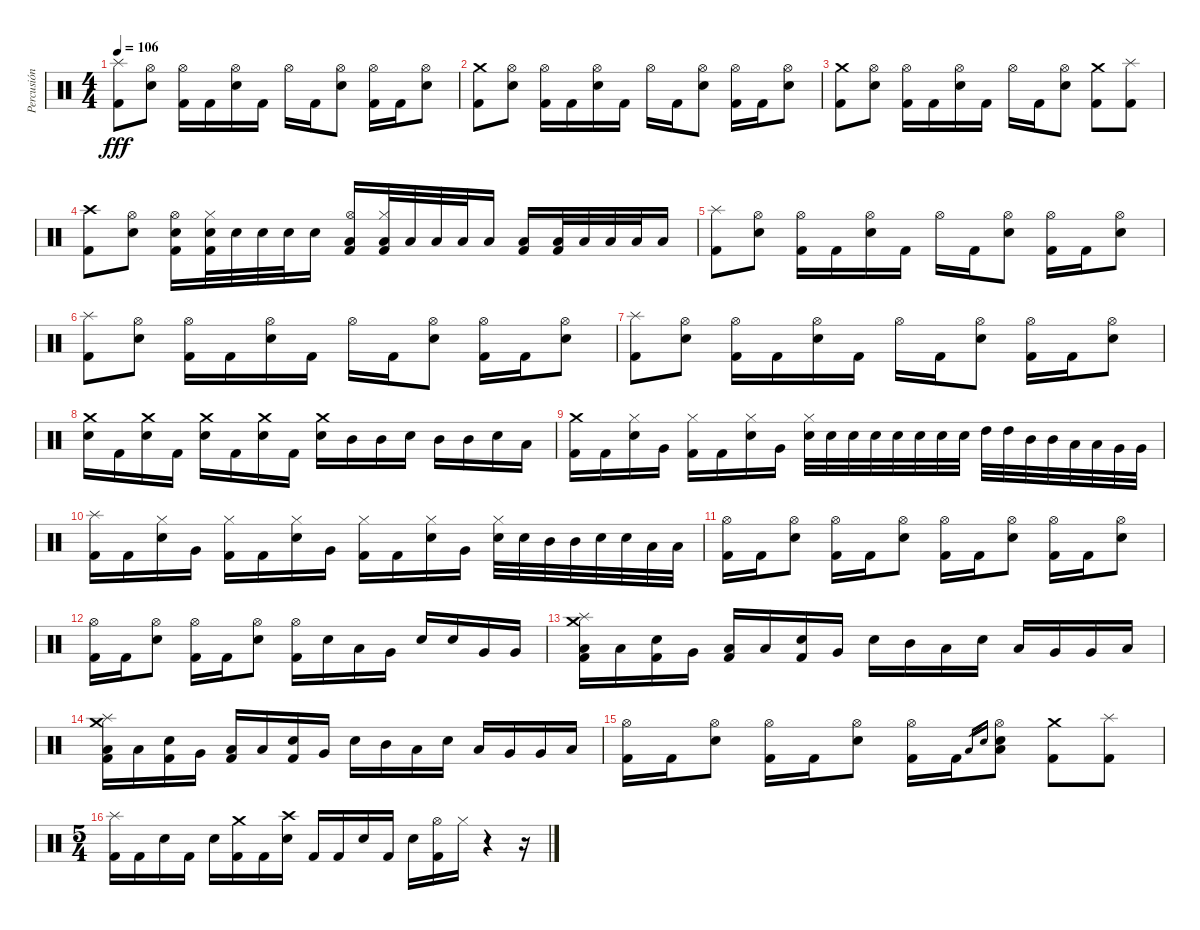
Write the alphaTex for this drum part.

\track ("Percusión" "Percusión") {instrument percussion}
\staff {score}
\articulation defaults
\ts (4 4)
\tempo 106
\clef neutral
\ks c
("Splash (hit)" "Kick (hit) 2").8{dy fff} ("Hi-Hat (open)" "Snare (hit) 2").8 ("Hi-Hat (open)" "Kick (hit) 2").16 "Kick (hit) 2".16 ("Hi-Hat (open)" "Snare (hit) 2").16 "Kick (hit) 2".16 "Hi-Hat (open)".16 "Kick (hit) 2".16 ("Hi-Hat (open)" "Snare (hit) 2").8 ("Hi-Hat (open)" "Kick (hit) 2").16 "Kick (hit) 2".16 ("Hi-Hat (open)" "Snare (hit) 2").8 |
("Crash medium (hit)" "Kick (hit) 2").8 ("Hi-Hat (open)" "Snare (hit) 2").8 ("Hi-Hat (open)" "Kick (hit) 2").16 "Kick (hit) 2".16 ("Hi-Hat (open)" "Snare (hit) 2").16 "Kick (hit) 2".16 "Hi-Hat (open)".16 "Kick (hit) 2".16 ("Hi-Hat (open)" "Snare (hit) 2").8 ("Hi-Hat (open)" "Kick (hit) 2").16 "Kick (hit) 2".16 ("Hi-Hat (open)" "Snare (hit) 2").8 |
("Crash medium (hit)" "Kick (hit) 2").8 ("Hi-Hat (open)" "Snare (hit) 2").8 ("Hi-Hat (open)" "Kick (hit) 2").16 "Kick (hit) 2".16 ("Hi-Hat (open)" "Snare (hit) 2").16 "Kick (hit) 2".16 "Hi-Hat (open)".16 "Kick (hit) 2".16 ("Hi-Hat (open)" "Snare (hit) 2").8 ("Crash medium (hit)" "Kick (hit) 2").8 ("Splash (hit)" "Kick (hit) 2").8 |
("Crash high (hit)" "Kick (hit) 2").8 ("Hi-Hat (open)" "Snare (hit) 2").8 ("Hi-Hat (open)" "Kick (hit) 2" "Snare (hit) 2").16 ("Hi-Hat (closed)" "Kick (hit) 2" "Snare (hit) 2").32 "Snare (hit) 2".32 "Snare (hit) 2".32 "Snare (hit) 2".32 "Snare (hit) 2".16 ("Hi-Hat (open)" "Kick (hit) 2" "Low Tom (hit)").16 ("Hi-Hat (closed)" "Kick (hit) 2" "Low Tom (hit)").32 "Low Tom (hit)".32 "Low Tom (hit)".32 "Low Tom (hit)".32 "Low Tom (hit)".16 ("Kick (hit) 2" "Low Floor Tom (hit)").16 ("Kick (hit) 2" "Low Floor Tom (hit)").32 "Low Floor Tom (hit)".32 "Low Floor Tom (hit)".32 "Low Floor Tom (hit)".32 "Low Floor Tom (hit)".16 |
("Splash (hit)" "Kick (hit) 2").8 ("Hi-Hat (open)" "Snare (hit) 2").8 ("Hi-Hat (open)" "Kick (hit) 2").16 "Kick (hit) 2".16 ("Hi-Hat (open)" "Snare (hit) 2").16 "Kick (hit) 2".16 "Hi-Hat (open)".16 "Kick (hit) 2".16 ("Hi-Hat (open)" "Snare (hit) 2").8 ("Hi-Hat (open)" "Kick (hit) 2").16 "Kick (hit) 2".16 ("Hi-Hat (open)" "Snare (hit) 2").8 |
("Splash (hit)" "Kick (hit) 2").8 ("Hi-Hat (open)" "Snare (hit) 2").8 ("Hi-Hat (open)" "Kick (hit) 2").16 "Kick (hit) 2".16 ("Hi-Hat (open)" "Snare (hit) 2").16 "Kick (hit) 2".16 "Hi-Hat (open)".16 "Kick (hit) 2".16 ("Hi-Hat (open)" "Snare (hit) 2").8 ("Hi-Hat (open)" "Kick (hit) 2").16 "Kick (hit) 2".16 ("Hi-Hat (open)" "Snare (hit) 2").8 |
("Splash (hit)" "Kick (hit) 2").8 ("Hi-Hat (open)" "Snare (hit) 2").8 ("Hi-Hat (open)" "Kick (hit) 2").16 "Kick (hit) 2".16 ("Hi-Hat (open)" "Snare (hit) 2").16 "Kick (hit) 2".16 "Hi-Hat (open)".16 "Kick (hit) 2".16 ("Hi-Hat (open)" "Snare (hit) 2").8 ("Hi-Hat (open)" "Kick (hit) 2").16 "Kick (hit) 2".16 ("Hi-Hat (open)" "Snare (hit) 2").8 |
("Crash medium (hit)" "Snare (hit) 2").16 "Kick (hit) 2".16 ("Crash medium (hit)" "Snare (hit) 2").16 "Kick (hit) 2".16 ("Crash medium (hit)" "Snare (hit) 2").16 "Kick (hit) 2".16 ("Crash medium (hit)" "Snare (hit) 2").16 "Kick (hit) 2".16 ("Crash medium (hit)" "Snare (hit) 2").16 "Mid Tom (hit)".16 "Mid Tom (hit)".16 "Snare (hit) 2".16 "Mid Tom (hit)".16 "Mid Tom (hit)".16 "Snare (hit) 2".16 "Low Tom (hit)".16 |
("Crash medium (hit)" "Kick (hit) 2").16 "Kick (hit) 2".16 ("Hi-Hat (closed)" "Snare (hit) 2").16 "Very Low Tom (hit)".16 ("Hi-Hat (closed)" "Kick (hit) 2").16 "Kick (hit) 2".16 ("Hi-Hat (closed)" "Snare (hit) 2").16 "Very Low Tom (hit)".16 ("Hi-Hat (closed)" "Snare (hit) 2").32 "Snare (hit) 2".32 "Snare (hit) 2".32 "Snare (hit) 2".32 "Snare (hit) 2".32 "Snare (hit) 2".32 "Snare (hit) 2".32 "Snare (hit) 2".32 "High Tom (hit)".32 "High Tom (hit)".32 "Mid Tom (hit)".32 "Mid Tom (hit)".32 "Low Tom (hit)".32 "Low Tom (hit)".32 "Very Low Tom (hit)".32 "Very Low Tom (hit)".32 |
("Splash (hit)" "Kick (hit) 2").16 "Kick (hit) 2".16 ("Hi-Hat (closed)" "Snare (hit) 2").16 "Very Low Tom (hit)".16 ("Hi-Hat (closed)" "Kick (hit) 2").16 "Kick (hit) 2".16 ("Hi-Hat (closed)" "Snare (hit) 2").16 "Very Low Tom (hit)".16 ("Hi-Hat (closed)" "Kick (hit) 2").16 "Kick (hit) 2".16 ("Hi-Hat (closed)" "Snare (hit) 2").16 "Very Low Tom (hit)".16 ("Hi-Hat (closed)" "Snare (hit) 2").32 "Snare (hit) 2".32 "Mid Tom (hit)".32 "Mid Tom (hit)".32 "Snare (hit) 2".32 "Snare (hit) 2".32 "Low Tom (hit)".32 "Low Tom (hit)".32 |
("Hi-Hat (open)" "Kick (hit) 2").16 "Kick (hit) 2".16 ("Hi-Hat (open)" "Snare (hit) 2").8 ("Hi-Hat (open)" "Kick (hit) 2").16 "Kick (hit) 2".16 ("Hi-Hat (open)" "Snare (hit) 2").8 ("Hi-Hat (open)" "Kick (hit) 2").16 "Kick (hit) 2".16 ("Hi-Hat (open)" "Snare (hit) 2").8 ("Hi-Hat (open)" "Kick (hit) 2").16 "Kick (hit) 2".16 ("Hi-Hat (open)" "Snare (hit) 2").8 |
("Hi-Hat (open)" "Kick (hit) 2").16 "Kick (hit) 2".16 ("Hi-Hat (open)" "Snare (hit) 2").8 ("Hi-Hat (open)" "Kick (hit) 2").16 "Kick (hit) 2".16 ("Hi-Hat (open)" "Snare (hit) 2").8 ("Hi-Hat (open)" "Kick (hit) 2").16 "Snare (hit) 2".16 "Low Tom (hit)".16 "Very Low Tom (hit)".16 "Snare (hit) 2".16 "Snare (hit) 2".16 "Very Low Tom (hit)".16 "Very Low Tom (hit)".16 |
("Crash medium (hit)" "Splash (hit)" "Low Tom (hit)" "Kick (hit) 2").16 "Low Tom (hit)".16 ("Snare (hit) 2" "Kick (hit) 2").16 "Very Low Tom (hit)".16 ("Low Tom (hit)" "Kick (hit) 2").16 "Low Tom (hit)".16 ("Snare (hit) 2" "Kick (hit) 2").16 "Very Low Tom (hit)".16 "Snare (hit) 2".16 "Mid Tom (hit)".16 "Low Tom (hit)".16 "Snare (hit) 2".16 "Low Tom (hit)".16 "Very Low Tom (hit)".16 "Very Low Tom (hit)".16 "Low Floor Tom (hit)".16 |
("Crash medium (hit)" "Splash (hit)" "Low Tom (hit)" "Kick (hit) 2").16 "Low Tom (hit)".16 ("Snare (hit) 2" "Kick (hit) 2").16 "Very Low Tom (hit)".16 ("Low Tom (hit)" "Kick (hit) 2").16 "Low Tom (hit)".16 ("Snare (hit) 2" "Kick (hit) 2").16 "Very Low Tom (hit)".16 "Snare (hit) 2".16 "Mid Tom (hit)".16 "Low Tom (hit)".16 "Snare (hit) 2".16 "Low Tom (hit)".16 "Very Low Tom (hit)".16 "Very Low Tom (hit)".16 "Low Floor Tom (hit)".16 |
("Hi-Hat (open)" "Kick (hit) 2").16 "Kick (hit) 2".16 ("Hi-Hat (open)" "Snare (hit) 2").8 ("Hi-Hat (open)" "Kick (hit) 2").16 "Kick (hit) 2".16 ("Hi-Hat (open)" "Snare (hit) 2").8 ("Hi-Hat (open)" "Kick (hit) 2").16 "Kick (hit) 2".16 "Low Tom (hit)".16{gr} "Snare (hit) 2".16{gr} ("Hi-Hat (open)" "Low Tom (hit)" "Snare (hit) 2").8 ("Crash medium (hit)" "Kick (hit) 2").8 ("Splash (hit)" "Kick (hit) 2").8 |
\ts (5 4)
("Splash (hit)" "Kick (hit) 2").16 "Kick (hit) 2".16 "Snare (hit) 2".16 "Kick (hit) 2".16 "Snare (hit) 2".16 ("Crash medium (hit)" "Kick (hit) 2").16 "Kick (hit) 2".16 ("Crash high (hit)" "Snare (hit) 2").16 "Kick (hit) 2".16 "Kick (hit) 2".16 "Snare (hit) 2".16 "Kick (hit) 2".16 "Snare (hit) 2".16 ("Hi-Hat (open)" "Kick (hit) 2").16 "Hi-Hat (closed)".16 r.4 r.16
